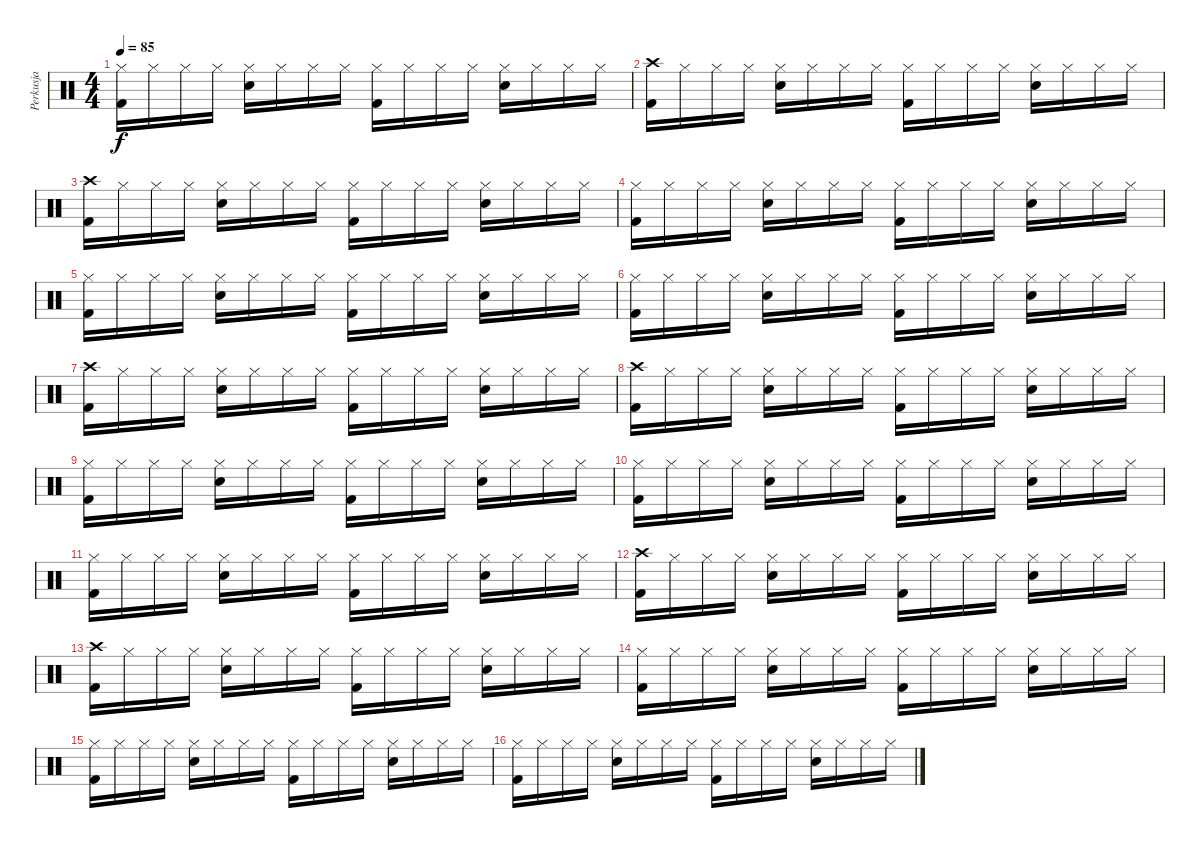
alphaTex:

\track ("Perkusja" "Perkusja") {instrument percussion}
\staff {score}
\articulation defaults
\ts (4 4)
\tempo 85
\clef neutral
\ks c
("Hi-Hat (closed)" "Kick (hit) 2").16{dy f} "Hi-Hat (closed)".16 "Hi-Hat (closed)".16 "Hi-Hat (closed)".16 ("Hi-Hat (closed)" "Electric Snare (hit)").16 "Hi-Hat (closed)".16 "Hi-Hat (closed)".16 "Hi-Hat (closed)".16 ("Hi-Hat (closed)" "Kick (hit) 2").16 "Hi-Hat (closed)".16 "Hi-Hat (closed)".16 "Hi-Hat (closed)".16 ("Hi-Hat (closed)" "Electric Snare (hit)").16 "Hi-Hat (closed)".16 "Hi-Hat (closed)".16 "Hi-Hat (closed)".16 |
("Crash high (hit)" "Kick (hit) 2").16 "Hi-Hat (closed)".16 "Hi-Hat (closed)".16 "Hi-Hat (closed)".16 ("Hi-Hat (closed)" "Electric Snare (hit)").16 "Hi-Hat (closed)".16 "Hi-Hat (closed)".16 "Hi-Hat (closed)".16 ("Hi-Hat (closed)" "Kick (hit) 2").16 "Hi-Hat (closed)".16 "Hi-Hat (closed)".16 "Hi-Hat (closed)".16 ("Hi-Hat (closed)" "Electric Snare (hit)").16 "Hi-Hat (closed)".16 "Hi-Hat (closed)".16 "Hi-Hat (closed)".16 |
("Crash high (hit)" "Kick (hit) 2").16 "Hi-Hat (closed)".16 "Hi-Hat (closed)".16 "Hi-Hat (closed)".16 ("Hi-Hat (closed)" "Electric Snare (hit)").16 "Hi-Hat (closed)".16 "Hi-Hat (closed)".16 "Hi-Hat (closed)".16 ("Hi-Hat (closed)" "Kick (hit) 2").16 "Hi-Hat (closed)".16 "Hi-Hat (closed)".16 "Hi-Hat (closed)".16 ("Hi-Hat (closed)" "Electric Snare (hit)").16 "Hi-Hat (closed)".16 "Hi-Hat (closed)".16 "Hi-Hat (closed)".16 |
("Hi-Hat (closed)" "Kick (hit) 2").16 "Hi-Hat (closed)".16 "Hi-Hat (closed)".16 "Hi-Hat (closed)".16 ("Hi-Hat (closed)" "Electric Snare (hit)").16 "Hi-Hat (closed)".16 "Hi-Hat (closed)".16 "Hi-Hat (closed)".16 ("Hi-Hat (closed)" "Kick (hit) 2").16 "Hi-Hat (closed)".16 "Hi-Hat (closed)".16 "Hi-Hat (closed)".16 ("Hi-Hat (closed)" "Electric Snare (hit)").16 "Hi-Hat (closed)".16 "Hi-Hat (closed)".16 "Hi-Hat (closed)".16 |
("Hi-Hat (closed)" "Kick (hit) 2").16 "Hi-Hat (closed)".16 "Hi-Hat (closed)".16 "Hi-Hat (closed)".16 ("Hi-Hat (closed)" "Electric Snare (hit)").16 "Hi-Hat (closed)".16 "Hi-Hat (closed)".16 "Hi-Hat (closed)".16 ("Hi-Hat (closed)" "Kick (hit) 2").16 "Hi-Hat (closed)".16 "Hi-Hat (closed)".16 "Hi-Hat (closed)".16 ("Hi-Hat (closed)" "Electric Snare (hit)").16 "Hi-Hat (closed)".16 "Hi-Hat (closed)".16 "Hi-Hat (closed)".16 |
("Hi-Hat (closed)" "Kick (hit) 2").16 "Hi-Hat (closed)".16 "Hi-Hat (closed)".16 "Hi-Hat (closed)".16 ("Hi-Hat (closed)" "Electric Snare (hit)").16 "Hi-Hat (closed)".16 "Hi-Hat (closed)".16 "Hi-Hat (closed)".16 ("Hi-Hat (closed)" "Kick (hit) 2").16 "Hi-Hat (closed)".16 "Hi-Hat (closed)".16 "Hi-Hat (closed)".16 ("Hi-Hat (closed)" "Electric Snare (hit)").16 "Hi-Hat (closed)".16 "Hi-Hat (closed)".16 "Hi-Hat (closed)".16 |
("Crash high (hit)" "Kick (hit) 2").16 "Hi-Hat (closed)".16 "Hi-Hat (closed)".16 "Hi-Hat (closed)".16 ("Hi-Hat (closed)" "Electric Snare (hit)").16 "Hi-Hat (closed)".16 "Hi-Hat (closed)".16 "Hi-Hat (closed)".16 ("Hi-Hat (closed)" "Kick (hit) 2").16 "Hi-Hat (closed)".16 "Hi-Hat (closed)".16 "Hi-Hat (closed)".16 ("Hi-Hat (closed)" "Electric Snare (hit)").16 "Hi-Hat (closed)".16 "Hi-Hat (closed)".16 "Hi-Hat (closed)".16 |
("Crash high (hit)" "Kick (hit) 2").16 "Hi-Hat (closed)".16 "Hi-Hat (closed)".16 "Hi-Hat (closed)".16 ("Hi-Hat (closed)" "Electric Snare (hit)").16 "Hi-Hat (closed)".16 "Hi-Hat (closed)".16 "Hi-Hat (closed)".16 ("Hi-Hat (closed)" "Kick (hit) 2").16 "Hi-Hat (closed)".16 "Hi-Hat (closed)".16 "Hi-Hat (closed)".16 ("Hi-Hat (closed)" "Electric Snare (hit)").16 "Hi-Hat (closed)".16 "Hi-Hat (closed)".16 "Hi-Hat (closed)".16 |
("Hi-Hat (closed)" "Kick (hit) 2").16 "Hi-Hat (closed)".16 "Hi-Hat (closed)".16 "Hi-Hat (closed)".16 ("Hi-Hat (closed)" "Electric Snare (hit)").16 "Hi-Hat (closed)".16 "Hi-Hat (closed)".16 "Hi-Hat (closed)".16 ("Hi-Hat (closed)" "Kick (hit) 2").16 "Hi-Hat (closed)".16 "Hi-Hat (closed)".16 "Hi-Hat (closed)".16 ("Hi-Hat (closed)" "Electric Snare (hit)").16 "Hi-Hat (closed)".16 "Hi-Hat (closed)".16 "Hi-Hat (closed)".16 |
("Hi-Hat (closed)" "Kick (hit) 2").16 "Hi-Hat (closed)".16 "Hi-Hat (closed)".16 "Hi-Hat (closed)".16 ("Hi-Hat (closed)" "Electric Snare (hit)").16 "Hi-Hat (closed)".16 "Hi-Hat (closed)".16 "Hi-Hat (closed)".16 ("Hi-Hat (closed)" "Kick (hit) 2").16 "Hi-Hat (closed)".16 "Hi-Hat (closed)".16 "Hi-Hat (closed)".16 ("Hi-Hat (closed)" "Electric Snare (hit)").16 "Hi-Hat (closed)".16 "Hi-Hat (closed)".16 "Hi-Hat (closed)".16 |
("Hi-Hat (closed)" "Kick (hit) 2").16 "Hi-Hat (closed)".16 "Hi-Hat (closed)".16 "Hi-Hat (closed)".16 ("Hi-Hat (closed)" "Electric Snare (hit)").16 "Hi-Hat (closed)".16 "Hi-Hat (closed)".16 "Hi-Hat (closed)".16 ("Hi-Hat (closed)" "Kick (hit) 2").16 "Hi-Hat (closed)".16 "Hi-Hat (closed)".16 "Hi-Hat (closed)".16 ("Hi-Hat (closed)" "Electric Snare (hit)").16 "Hi-Hat (closed)".16 "Hi-Hat (closed)".16 "Hi-Hat (closed)".16 |
("Crash high (hit)" "Kick (hit) 2").16 "Hi-Hat (closed)".16 "Hi-Hat (closed)".16 "Hi-Hat (closed)".16 ("Hi-Hat (closed)" "Electric Snare (hit)").16 "Hi-Hat (closed)".16 "Hi-Hat (closed)".16 "Hi-Hat (closed)".16 ("Hi-Hat (closed)" "Kick (hit) 2").16 "Hi-Hat (closed)".16 "Hi-Hat (closed)".16 "Hi-Hat (closed)".16 ("Hi-Hat (closed)" "Electric Snare (hit)").16 "Hi-Hat (closed)".16 "Hi-Hat (closed)".16 "Hi-Hat (closed)".16 |
("Crash high (hit)" "Kick (hit) 2").16 "Hi-Hat (closed)".16 "Hi-Hat (closed)".16 "Hi-Hat (closed)".16 ("Hi-Hat (closed)" "Electric Snare (hit)").16 "Hi-Hat (closed)".16 "Hi-Hat (closed)".16 "Hi-Hat (closed)".16 ("Hi-Hat (closed)" "Kick (hit) 2").16 "Hi-Hat (closed)".16 "Hi-Hat (closed)".16 "Hi-Hat (closed)".16 ("Hi-Hat (closed)" "Electric Snare (hit)").16 "Hi-Hat (closed)".16 "Hi-Hat (closed)".16 "Hi-Hat (closed)".16 |
("Hi-Hat (closed)" "Kick (hit) 2").16 "Hi-Hat (closed)".16 "Hi-Hat (closed)".16 "Hi-Hat (closed)".16 ("Hi-Hat (closed)" "Electric Snare (hit)").16 "Hi-Hat (closed)".16 "Hi-Hat (closed)".16 "Hi-Hat (closed)".16 ("Hi-Hat (closed)" "Kick (hit) 2").16 "Hi-Hat (closed)".16 "Hi-Hat (closed)".16 "Hi-Hat (closed)".16 ("Hi-Hat (closed)" "Electric Snare (hit)").16 "Hi-Hat (closed)".16 "Hi-Hat (closed)".16 "Hi-Hat (closed)".16 |
("Hi-Hat (closed)" "Kick (hit) 2").16 "Hi-Hat (closed)".16 "Hi-Hat (closed)".16 "Hi-Hat (closed)".16 ("Hi-Hat (closed)" "Electric Snare (hit)").16 "Hi-Hat (closed)".16 "Hi-Hat (closed)".16 "Hi-Hat (closed)".16 ("Hi-Hat (closed)" "Kick (hit) 2").16 "Hi-Hat (closed)".16 "Hi-Hat (closed)".16 "Hi-Hat (closed)".16 ("Hi-Hat (closed)" "Electric Snare (hit)").16 "Hi-Hat (closed)".16 "Hi-Hat (closed)".16 "Hi-Hat (closed)".16 |
("Hi-Hat (closed)" "Kick (hit) 2").16 "Hi-Hat (closed)".16 "Hi-Hat (closed)".16 "Hi-Hat (closed)".16 ("Hi-Hat (closed)" "Electric Snare (hit)").16 "Hi-Hat (closed)".16 "Hi-Hat (closed)".16 "Hi-Hat (closed)".16 ("Hi-Hat (closed)" "Kick (hit) 2").16 "Hi-Hat (closed)".16 "Hi-Hat (closed)".16 "Hi-Hat (closed)".16 ("Hi-Hat (closed)" "Electric Snare (hit)").16 "Hi-Hat (closed)".16 "Hi-Hat (closed)".16 "Hi-Hat (closed)".16
